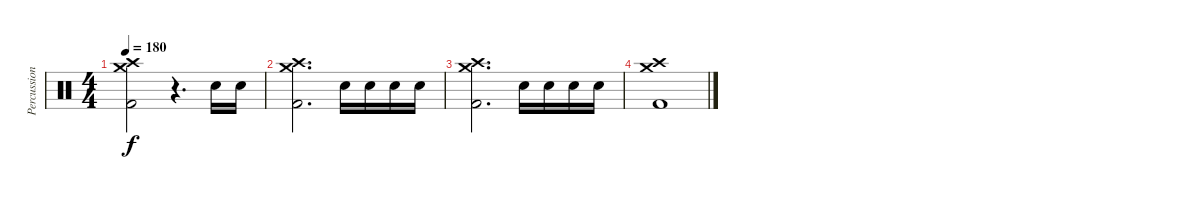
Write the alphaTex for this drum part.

\track ("Percussion" "Percussion") {instrument percussion}
\staff {score}
\articulation defaults
\ts (4 4)
\tempo 180
\clef neutral
\ks c
("Crash high (hit)" "Crash medium (hit)" "Kick (hit) 2").2{dy f} r.4{d} "Snare (hit) 2".16 "Snare (hit) 2".16 |
("Crash high (hit)" "Crash medium (hit)" "Kick (hit) 2").2{d} "Snare (hit) 2".16 "Snare (hit) 2".16 "Snare (hit) 2".16 "Snare (hit) 2".16 |
("Crash high (hit)" "Crash medium (hit)" "Kick (hit) 2").2{d} "Snare (hit) 2".16 "Snare (hit) 2".16 "Snare (hit) 2".16 "Snare (hit) 2".16 |
("Crash high (hit)" "Crash medium (hit)" "Kick (hit) 2").1
